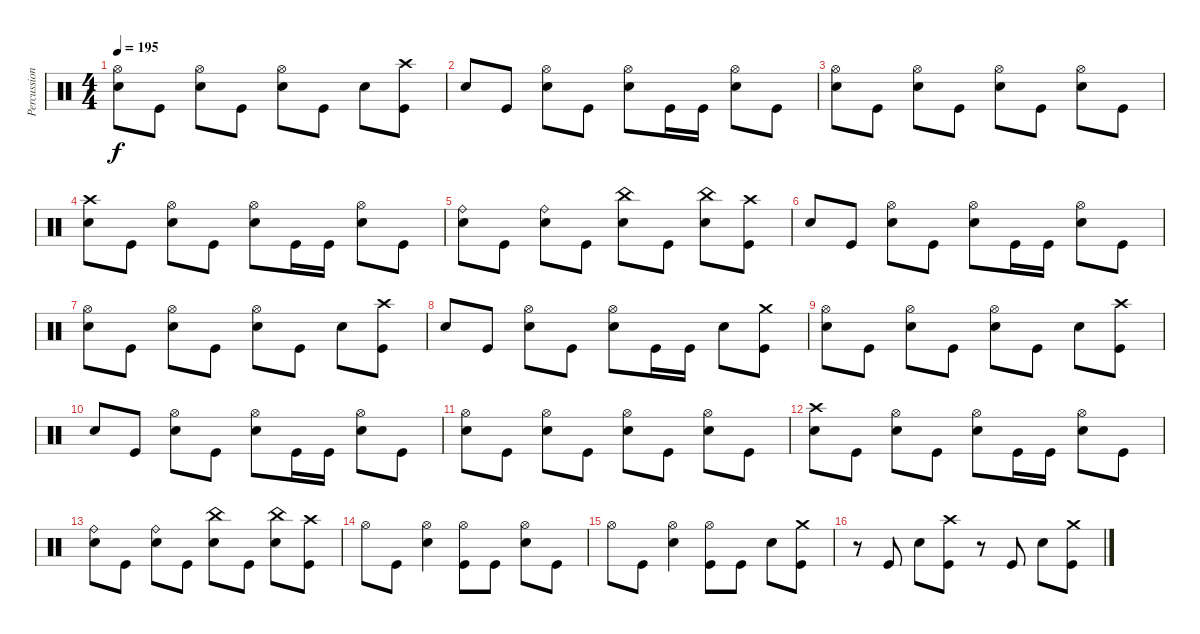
\track ("Percussion" "Percussion") {instrument percussion}
\staff {score}
\articulation defaults
\ts (4 4)
\tempo 195
\clef neutral
\ks c
("Hi-Hat (open)" "Electric Snare (hit)").8{dy f} "Kick (hit)".8 ("Hi-Hat (open)" "Electric Snare (hit)").8 "Kick (hit)".8 ("Hi-Hat (open)" "Electric Snare (hit)").8 "Kick (hit)".8 "Electric Snare (hit)".8 ("Crash high (hit)" "Kick (hit)").8 |
"Electric Snare (hit)".8 "Kick (hit)".8 ("Hi-Hat (open)" "Electric Snare (hit)").8 "Kick (hit)".8 ("Hi-Hat (open)" "Electric Snare (hit)").8 "Kick (hit)".16 "Kick (hit)".16 ("Hi-Hat (open)" "Electric Snare (hit)").8 "Kick (hit)".8 |
("Hi-Hat (open)" "Electric Snare (hit)").8 "Kick (hit)".8 ("Hi-Hat (open)" "Electric Snare (hit)").8 "Kick (hit)".8 ("Hi-Hat (open)" "Electric Snare (hit)").8 "Kick (hit)".8 ("Hi-Hat (open)" "Electric Snare (hit)").8 "Kick (hit)".8 |
("Crash high (hit)" "Electric Snare (hit)").8 "Kick (hit)".8 ("Hi-Hat (open)" "Electric Snare (hit)").8 "Kick (hit)".8 ("Hi-Hat (open)" "Electric Snare (hit)").8 "Kick (hit)".16 "Kick (hit)".16 ("Hi-Hat (open)" "Electric Snare (hit)").8 "Kick (hit)".8 |
("Ride (bell)" "Electric Snare (hit)").8 "Kick (hit)".8 ("Ride (bell)" "Electric Snare (hit)").8 "Kick (hit)".8 ("China (hit)" "Electric Snare (hit)").8 "Kick (hit)".8 ("China (hit)" "Electric Snare (hit)").8 ("Crash high (hit)" "Kick (hit)").8 |
"Electric Snare (hit)".8 "Kick (hit)".8 ("Hi-Hat (open)" "Electric Snare (hit)").8 "Kick (hit)".8 ("Hi-Hat (open)" "Electric Snare (hit)").8 "Kick (hit)".16 "Kick (hit)".16 ("Hi-Hat (open)" "Electric Snare (hit)").8 "Kick (hit)".8 |
("Hi-Hat (open)" "Electric Snare (hit)").8 "Kick (hit)".8 ("Hi-Hat (open)" "Electric Snare (hit)").8 "Kick (hit)".8 ("Hi-Hat (open)" "Electric Snare (hit)").8 "Kick (hit)".8 "Electric Snare (hit)".8 ("Crash high (hit)" "Kick (hit)").8 |
"Electric Snare (hit)".8 "Kick (hit)".8 ("Hi-Hat (open)" "Electric Snare (hit)").8 "Kick (hit)".8 ("Hi-Hat (open)" "Electric Snare (hit)").8 "Kick (hit)".16 "Kick (hit)".16 "Electric Snare (hit)".8 ("Crash medium (hit)" "Kick (hit)").8 |
("Hi-Hat (open)" "Electric Snare (hit)").8 "Kick (hit)".8 ("Hi-Hat (open)" "Electric Snare (hit)").8 "Kick (hit)".8 ("Hi-Hat (open)" "Electric Snare (hit)").8 "Kick (hit)".8 "Electric Snare (hit)".8 ("Crash high (hit)" "Kick (hit)").8 |
"Electric Snare (hit)".8 "Kick (hit)".8 ("Hi-Hat (open)" "Electric Snare (hit)").8 "Kick (hit)".8 ("Hi-Hat (open)" "Electric Snare (hit)").8 "Kick (hit)".16 "Kick (hit)".16 ("Hi-Hat (open)" "Electric Snare (hit)").8 "Kick (hit)".8 |
("Hi-Hat (open)" "Electric Snare (hit)").8 "Kick (hit)".8 ("Hi-Hat (open)" "Electric Snare (hit)").8 "Kick (hit)".8 ("Hi-Hat (open)" "Electric Snare (hit)").8 "Kick (hit)".8 ("Hi-Hat (open)" "Electric Snare (hit)").8 "Kick (hit)".8 |
("Crash high (hit)" "Electric Snare (hit)").8 "Kick (hit)".8 ("Hi-Hat (open)" "Electric Snare (hit)").8 "Kick (hit)".8 ("Hi-Hat (open)" "Electric Snare (hit)").8 "Kick (hit)".16 "Kick (hit)".16 ("Hi-Hat (open)" "Electric Snare (hit)").8 "Kick (hit)".8 |
("Ride (bell)" "Electric Snare (hit)").8 "Kick (hit)".8 ("Ride (bell)" "Electric Snare (hit)").8 "Kick (hit)".8 ("China (hit)" "Electric Snare (hit)").8 "Kick (hit)".8 ("China (hit)" "Electric Snare (hit)").8 ("Crash high (hit)" "Kick (hit)").8 |
"Hi-Hat (open)".8 "Kick (hit)".8 ("Hi-Hat (open)" "Electric Snare (hit)").4 ("Hi-Hat (open)" "Kick (hit)").8 "Kick (hit)".8 ("Hi-Hat (open)" "Electric Snare (hit)").8 "Kick (hit)".8 |
"Hi-Hat (open)".8 "Kick (hit)".8 ("Hi-Hat (open)" "Electric Snare (hit)").4 ("Hi-Hat (open)" "Kick (hit)").8 "Kick (hit)".8 "Electric Snare (hit)".8 ("Crash medium (hit)" "Kick (hit)").8 |
r.8 "Kick (hit)".8 "Electric Snare (hit)".8 ("Crash high (hit)" "Kick (hit)").8 r.8 "Kick (hit)".8 "Electric Snare (hit)".8 ("Crash medium (hit)" "Kick (hit)").8
